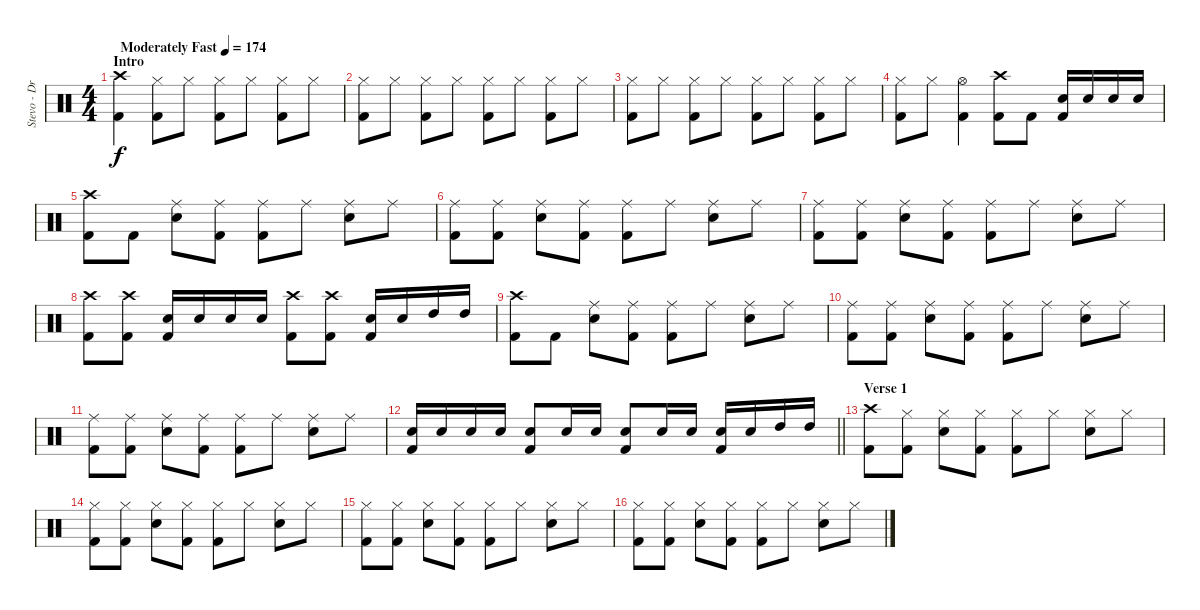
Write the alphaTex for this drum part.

\track ("Stevo - Drums" "Stevo - Dr") {instrument percussion}
\staff {score}
\articulation defaults
\ts (4 4)
\section ("" "Intro")
\tempo (174 "Moderately Fast")
\clef neutral
\ks c
("Crash high (hit)" "Kick (hit) 2").4{dy f} ("Hi-Hat (closed)" "Kick (hit) 2").8 "Hi-Hat (closed)".8 ("Hi-Hat (closed)" "Kick (hit) 2").8 "Hi-Hat (closed)".8 ("Hi-Hat (closed)" "Kick (hit) 2").8 "Hi-Hat (closed)".8 |
("Hi-Hat (closed)" "Kick (hit) 2").8 "Hi-Hat (closed)".8 ("Hi-Hat (closed)" "Kick (hit) 2").8 "Hi-Hat (closed)".8 ("Hi-Hat (closed)" "Kick (hit) 2").8 "Hi-Hat (closed)".8 ("Hi-Hat (closed)" "Kick (hit) 2").8 "Hi-Hat (closed)".8 |
("Hi-Hat (closed)" "Kick (hit) 2").8 "Hi-Hat (closed)".8 ("Hi-Hat (closed)" "Kick (hit) 2").8 "Hi-Hat (closed)".8 ("Hi-Hat (closed)" "Kick (hit) 2").8 "Hi-Hat (closed)".8 ("Hi-Hat (closed)" "Kick (hit) 2").8 "Hi-Hat (closed)".8 |
("Hi-Hat (closed)" "Kick (hit) 2").8 "Hi-Hat (closed)".8 ("Hi-Hat (open)" "Kick (hit) 2").4 ("Crash high (hit)" "Kick (hit) 2").8 "Kick (hit) 2".8 ("Electric Snare (hit)" "Kick (hit) 2").16 "Electric Snare (hit)".16 "Electric Snare (hit)".16 "Electric Snare (hit)".16 |
("Crash high (hit)" "Kick (hit) 2").8 "Kick (hit) 2".8 ("Ride (middle)" "Electric Snare (hit)").8 ("Ride (middle)" "Kick (hit) 2").8 ("Ride (middle)" "Kick (hit) 2").8 "Ride (middle)".8 ("Ride (middle)" "Electric Snare (hit)").8 "Ride (middle)".8 |
("Ride (middle)" "Kick (hit) 2").8 ("Ride (middle)" "Kick (hit) 2").8 ("Ride (middle)" "Electric Snare (hit)").8 ("Ride (middle)" "Kick (hit) 2").8 ("Ride (middle)" "Kick (hit) 2").8 "Ride (middle)".8 ("Ride (middle)" "Electric Snare (hit)").8 "Ride (middle)".8 |
("Ride (middle)" "Kick (hit) 2").8 ("Ride (middle)" "Kick (hit) 2").8 ("Ride (middle)" "Electric Snare (hit)").8 ("Ride (middle)" "Kick (hit) 2").8 ("Ride (middle)" "Kick (hit) 2").8 "Ride (middle)".8 ("Ride (middle)" "Electric Snare (hit)").8 "Ride (middle)".8 |
("Crash high (hit)" "Kick (hit) 2").8 ("Crash high (hit)" "Kick (hit) 2").8 ("Electric Snare (hit)" "Kick (hit) 2").16 "Electric Snare (hit)".16 "Electric Snare (hit)".16 "Electric Snare (hit)".16 ("Crash high (hit)" "Kick (hit) 2").8 ("Crash high (hit)" "Kick (hit) 2").8 ("Electric Snare (hit)" "Kick (hit) 2").16 "Electric Snare (hit)".16 "High Tom (hit)".16 "High Tom (hit)".16 |
("Crash high (hit)" "Kick (hit) 2").8 "Kick (hit) 2".8 ("Ride (middle)" "Electric Snare (hit)").8 ("Ride (middle)" "Kick (hit) 2").8 ("Ride (middle)" "Kick (hit) 2").8 "Ride (middle)".8 ("Ride (middle)" "Electric Snare (hit)").8 "Ride (middle)".8 |
("Ride (middle)" "Kick (hit) 2").8 ("Ride (middle)" "Kick (hit) 2").8 ("Ride (middle)" "Electric Snare (hit)").8 ("Ride (middle)" "Kick (hit) 2").8 ("Ride (middle)" "Kick (hit) 2").8 "Ride (middle)".8 ("Ride (middle)" "Electric Snare (hit)").8 "Ride (middle)".8 |
("Ride (middle)" "Kick (hit) 2").8 ("Ride (middle)" "Kick (hit) 2").8 ("Ride (middle)" "Electric Snare (hit)").8 ("Ride (middle)" "Kick (hit) 2").8 ("Ride (middle)" "Kick (hit) 2").8 "Ride (middle)".8 ("Ride (middle)" "Electric Snare (hit)").8 "Ride (middle)".8 |
\barLineRight lightlight
("Electric Snare (hit)" "Kick (hit) 2").16 "Electric Snare (hit)".16 "Electric Snare (hit)".16 "Electric Snare (hit)".16 ("Electric Snare (hit)" "Kick (hit) 2").8 "Electric Snare (hit)".16 "Electric Snare (hit)".16 ("Electric Snare (hit)" "Kick (hit) 2").8 "Electric Snare (hit)".16 "Electric Snare (hit)".16 ("Electric Snare (hit)" "Kick (hit) 2").16 "Electric Snare (hit)".16 "High Tom (hit)".16 "High Tom (hit)".16 |
\section ("" "Verse 1")
("Crash high (hit)" "Kick (hit) 2").8 ("Hi-Hat (closed)" "Kick (hit) 2").8 ("Hi-Hat (closed)" "Electric Snare (hit)").8 ("Hi-Hat (closed)" "Kick (hit) 2").8 ("Hi-Hat (closed)" "Kick (hit) 2").8 "Hi-Hat (closed)".8 ("Hi-Hat (closed)" "Electric Snare (hit)").8 "Hi-Hat (closed)".8 |
("Hi-Hat (closed)" "Kick (hit) 2").8 ("Hi-Hat (closed)" "Kick (hit) 2").8 ("Hi-Hat (closed)" "Electric Snare (hit)").8 ("Hi-Hat (closed)" "Kick (hit) 2").8 ("Hi-Hat (closed)" "Kick (hit) 2").8 "Hi-Hat (closed)".8 ("Hi-Hat (closed)" "Electric Snare (hit)").8 "Hi-Hat (closed)".8 |
("Hi-Hat (closed)" "Kick (hit) 2").8 ("Hi-Hat (closed)" "Kick (hit) 2").8 ("Hi-Hat (closed)" "Electric Snare (hit)").8 ("Hi-Hat (closed)" "Kick (hit) 2").8 ("Hi-Hat (closed)" "Kick (hit) 2").8 "Hi-Hat (closed)".8 ("Hi-Hat (closed)" "Electric Snare (hit)").8 "Hi-Hat (closed)".8 |
("Hi-Hat (closed)" "Kick (hit) 2").8 ("Hi-Hat (closed)" "Kick (hit) 2").8 ("Hi-Hat (closed)" "Electric Snare (hit)").8 ("Hi-Hat (closed)" "Kick (hit) 2").8 ("Hi-Hat (closed)" "Kick (hit) 2").8 "Hi-Hat (closed)".8 ("Hi-Hat (closed)" "Electric Snare (hit)").8 "Hi-Hat (closed)".8
